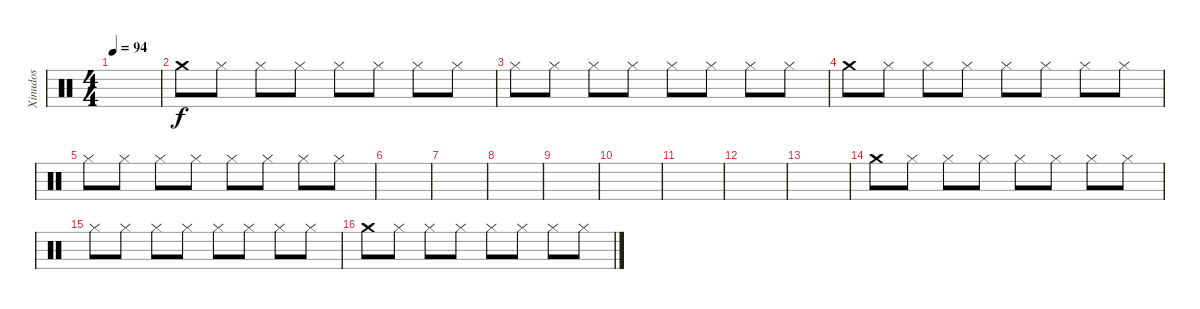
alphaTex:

\track ("Xinudos" "Xinudos") {instrument percussion}
\staff {score}
\articulation defaults
\ts (4 4)
\tempo 94
\clef neutral
\ks c
|
"Crash medium (hit)".8 "Hi-Hat (closed)".8 "Hi-Hat (closed)".8 "Hi-Hat (closed)".8 "Hi-Hat (closed)".8 "Hi-Hat (closed)".8 "Hi-Hat (closed)".8 "Hi-Hat (closed)".8 |
"Hi-Hat (closed)".8 "Hi-Hat (closed)".8 "Hi-Hat (closed)".8 "Hi-Hat (closed)".8 "Hi-Hat (closed)".8 "Hi-Hat (closed)".8 "Hi-Hat (closed)".8 "Hi-Hat (closed)".8 |
"Crash medium (hit)".8 "Hi-Hat (closed)".8 "Hi-Hat (closed)".8 "Hi-Hat (closed)".8 "Hi-Hat (closed)".8 "Hi-Hat (closed)".8 "Hi-Hat (closed)".8 "Hi-Hat (closed)".8 |
"Hi-Hat (closed)".8 "Hi-Hat (closed)".8 "Hi-Hat (closed)".8 "Hi-Hat (closed)".8 "Hi-Hat (closed)".8 "Hi-Hat (closed)".8 "Hi-Hat (closed)".8 "Hi-Hat (closed)".8 |
|
|
|
|
|
|
|
|
"Crash medium (hit)".8 "Hi-Hat (closed)".8 "Hi-Hat (closed)".8 "Hi-Hat (closed)".8 "Hi-Hat (closed)".8 "Hi-Hat (closed)".8 "Hi-Hat (closed)".8 "Hi-Hat (closed)".8 |
"Hi-Hat (closed)".8 "Hi-Hat (closed)".8 "Hi-Hat (closed)".8 "Hi-Hat (closed)".8 "Hi-Hat (closed)".8 "Hi-Hat (closed)".8 "Hi-Hat (closed)".8 "Hi-Hat (closed)".8 |
"Crash medium (hit)".8 "Hi-Hat (closed)".8 "Hi-Hat (closed)".8 "Hi-Hat (closed)".8 "Hi-Hat (closed)".8 "Hi-Hat (closed)".8 "Hi-Hat (closed)".8 "Hi-Hat (closed)".8
